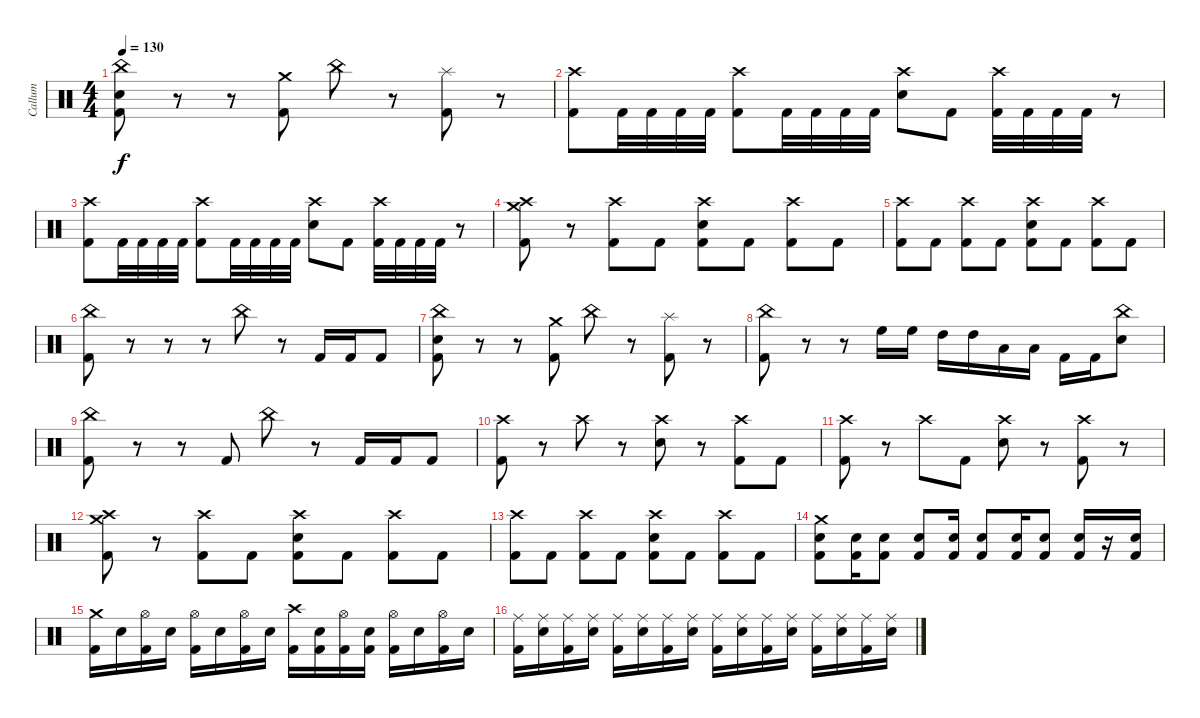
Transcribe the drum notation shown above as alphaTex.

\track ("Callum" "Callum") {instrument percussion}
\staff {score}
\articulation defaults
\ts (4 4)
\tempo 130
\clef neutral
\ks c
("China (hit)" "Electric Snare (hit)" "Kick (hit) 2").8{dy f} r.8 r.8 ("Crash medium (hit)" "Kick (hit) 2").8 "China (hit)".8 r.8 ("Splash (hit)" "Kick (hit) 2").8 r.8 |
("Crash high (hit)" "Kick (hit) 2").8 "Kick (hit) 2".32 "Kick (hit) 2".32 "Kick (hit) 2".32 "Kick (hit) 2".32 ("Crash high (hit)" "Kick (hit) 2").8 "Kick (hit) 2".32 "Kick (hit) 2".32 "Kick (hit) 2".32 "Kick (hit) 2".32 ("Crash high (hit)" "Electric Snare (hit)").8 "Kick (hit) 2".8 ("Crash high (hit)" "Kick (hit) 2").32 "Kick (hit) 2".32 "Kick (hit) 2".32 "Kick (hit) 2".32 r.8 |
("Crash high (hit)" "Kick (hit) 2").8 "Kick (hit) 2".32 "Kick (hit) 2".32 "Kick (hit) 2".32 "Kick (hit) 2".32 ("Crash high (hit)" "Kick (hit) 2").8 "Kick (hit) 2".32 "Kick (hit) 2".32 "Kick (hit) 2".32 "Kick (hit) 2".32 ("Crash high (hit)" "Electric Snare (hit)").8 "Kick (hit) 2".8 ("Crash high (hit)" "Kick (hit) 2").32 "Kick (hit) 2".32 "Kick (hit) 2".32 "Kick (hit) 2".32 r.8 |
("Crash medium (hit)" "Crash high (hit)" "Kick (hit) 2").8 r.8 ("Crash high (hit)" "Kick (hit) 2").8 "Kick (hit) 2".8 ("Crash high (hit)" "Electric Snare (hit)" "Kick (hit) 2").8 "Kick (hit) 2".8 ("Crash high (hit)" "Kick (hit) 2").8 "Kick (hit) 2".8 |
("Crash high (hit)" "Kick (hit) 2").8 "Kick (hit) 2".8 ("Crash high (hit)" "Kick (hit) 2").8 "Kick (hit) 2".8 ("Crash high (hit)" "Electric Snare (hit)" "Kick (hit) 2").8 "Kick (hit) 2".8 ("Crash high (hit)" "Kick (hit) 2").8 "Kick (hit) 2".8 |
("China (hit)" "Kick (hit) 2").8 r.8 r.8 r.8 "China (hit)".8 r.8 "Kick (hit) 2".16 "Kick (hit) 2".16 "Kick (hit) 2".8 |
("China (hit)" "Electric Snare (hit)" "Kick (hit) 2").8 r.8 r.8 ("Crash medium (hit)" "Kick (hit) 2").8 "China (hit)".8 r.8 ("Splash (hit)" "Kick (hit) 2").8 r.8 |
("China (hit)" "Kick (hit) 2").8 r.8 r.8 "High Floor Tom (hit)".16 "High Floor Tom (hit)".16 "High Tom (hit)".16 "High Tom (hit)".16 "Low Tom (hit)".16 "Low Tom (hit)".16 "Kick (hit) 2".16 "Kick (hit) 2".16 ("China (hit)" "Electric Snare (hit)").8 |
("China (hit)" "Kick (hit) 2").8 r.8 r.8 "Kick (hit) 2".8 "China (hit)".8 r.8 "Kick (hit) 2".16 "Kick (hit) 2".16 "Kick (hit) 2".8 |
("Crash high (hit)" "Kick (hit) 2").8 r.8 "Crash high (hit)".8 r.8 ("Crash high (hit)" "Electric Snare (hit)").8 r.8 ("Crash high (hit)" "Kick (hit) 2").8 "Kick (hit) 2".8 |
("Crash high (hit)" "Kick (hit) 2").8 r.8 "Crash high (hit)".8 "Kick (hit) 2".8 ("Crash high (hit)" "Electric Snare (hit)").8 r.8 ("Crash high (hit)" "Kick (hit) 2").8 r.8 |
("Crash medium (hit)" "Crash high (hit)" "Kick (hit) 2").8 r.8 ("Crash high (hit)" "Kick (hit) 2").8 "Kick (hit) 2".8 ("Crash high (hit)" "Electric Snare (hit)" "Kick (hit) 2").8 "Kick (hit) 2".8 ("Crash high (hit)" "Kick (hit) 2").8 "Kick (hit) 2".8 |
("Crash high (hit)" "Kick (hit) 2").8 "Kick (hit) 2".8 ("Crash high (hit)" "Kick (hit) 2").8 "Kick (hit) 2".8 ("Crash high (hit)" "Electric Snare (hit)" "Kick (hit) 2").8 "Kick (hit) 2".8 ("Crash high (hit)" "Kick (hit) 2").8 "Kick (hit) 2".8 |
("Crash medium (hit)" "Electric Snare (hit)" "Kick (hit) 2").8 ("Electric Snare (hit)" "Kick (hit) 2").16 ("Electric Snare (hit)" "Kick (hit) 2").8 ("Electric Snare (hit)" "Kick (hit) 2").8 ("Electric Snare (hit)" "Kick (hit) 2").16 ("Electric Snare (hit)" "Kick (hit) 2").8 ("Electric Snare (hit)" "Kick (hit) 2").16 ("Electric Snare (hit)" "Kick (hit) 2").8 ("Electric Snare (hit)" "Kick (hit) 2").16 r.16 ("Electric Snare (hit)" "Kick (hit) 2").16 |
("Crash medium (hit)" "Kick (hit) 2").16 "Electric Snare (hit)".16 ("Hi-Hat (open)" "Kick (hit) 2").16 "Electric Snare (hit)".16 ("Hi-Hat (open)" "Kick (hit) 2").16 "Electric Snare (hit)".16 ("Hi-Hat (open)" "Kick (hit) 2").16 "Electric Snare (hit)".16 ("Crash high (hit)" "Kick (hit) 2").16 ("Electric Snare (hit)" "Kick (hit) 2").16 ("Hi-Hat (open)" "Kick (hit) 2").16 ("Electric Snare (hit)" "Kick (hit) 2").16 ("Hi-Hat (open)" "Kick (hit) 2").16 "Electric Snare (hit)".16 ("Hi-Hat (open)" "Kick (hit) 2").16 "Electric Snare (hit)".16 |
("Ride (middle)" "Kick (hit) 2").16 ("Ride (middle)" "Electric Snare (hit)").16 ("Ride (middle)" "Kick (hit) 2").16 ("Ride (middle)" "Electric Snare (hit)").16 ("Ride (middle)" "Kick (hit) 2").16 ("Ride (middle)" "Electric Snare (hit)").16 ("Ride (middle)" "Kick (hit) 2").16 ("Ride (middle)" "Electric Snare (hit)").16 ("Ride (middle)" "Kick (hit) 2").16 ("Ride (middle)" "Electric Snare (hit)").16 ("Ride (middle)" "Kick (hit) 2").16 ("Ride (middle)" "Electric Snare (hit)").16 ("Ride (middle)" "Kick (hit) 2").16 ("Ride (middle)" "Electric Snare (hit)").16 ("Ride (middle)" "Kick (hit) 2").16 ("Ride (middle)" "Electric Snare (hit)").16
